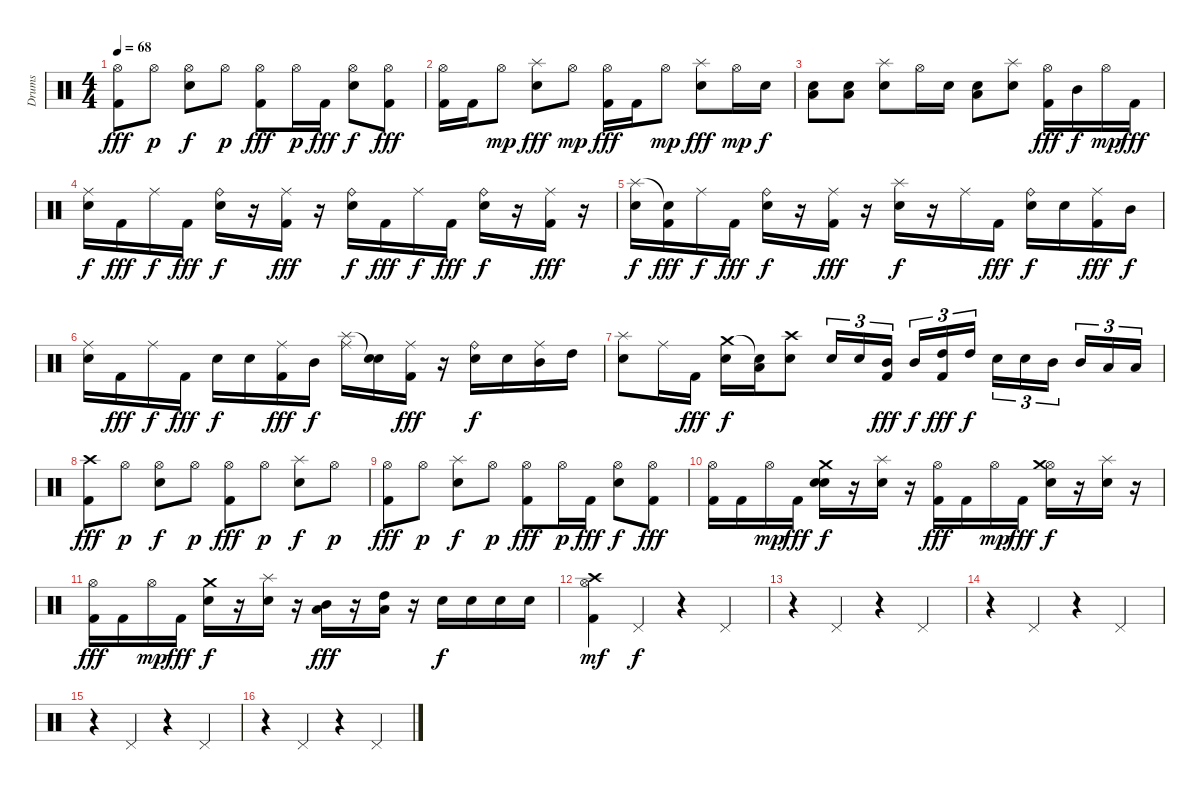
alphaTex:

\track ("Drums" "Drums") {instrument percussion}
\staff {score}
\articulation defaults
\ts (4 4)
\tempo 68
\clef neutral
\ks c
("Hi-Hat (open)" "Kick (hit) 2").8{dy fff} "Hi-Hat (open)".8{dy p} ("Hi-Hat (open)" "Snare (hit) 2").8{dy f} "Hi-Hat (open)".8{dy p} ("Hi-Hat (open)" "Kick (hit) 2").8{dy fff} "Hi-Hat (open)".16{dy p} "Kick (hit) 2".16{dy fff} ("Hi-Hat (open)" "Snare (hit) 2").8{dy f} ("Hi-Hat (open)" "Kick (hit) 2").8{dy fff} |
("Hi-Hat (open)" "Kick (hit) 2").16 "Kick (hit) 2".16 "Hi-Hat (open)".8{dy mp} ("Snare (hit) 2" "Splash (hit)").8{dy fff} "Hi-Hat (open)".8{dy mp} ("Hi-Hat (open)" "Kick (hit) 2").16{dy fff} "Kick (hit) 2".16 "Hi-Hat (open)".8{dy mp} ("Snare (hit) 2" "Splash (hit)").8{dy fff} "Hi-Hat (open)".16{dy mp} "Snare (hit) 2".16{dy f} |
("Snare (hit) 2" "Low Tom (hit)").8 ("Snare (hit) 2" "Low Tom (hit)").8 ("Snare (hit) 2" "Splash (hit)").8 "Hi-Hat (open)".16 "Snare (hit) 2".16 ("Snare (hit) 2" "Low Tom (hit)").8 ("Snare (hit) 2" "Splash (hit)").8 ("Hi-Hat (open)" "Kick (hit) 2").16{dy fff} "Mid Tom (hit)".16{dy f} "Hi-Hat (open)".16{dy mp} "Kick (hit) 2".16{dy fff} |
("Ride (middle)" "Snare (hit) 2").16{dy f} "Kick (hit) 2".16{dy fff} "Ride (middle)".16{dy f} "Kick (hit) 2".16{dy fff} ("Ride (bell)" "Snare (hit) 2").16{dy f} r.16 ("Ride (middle)" "Kick (hit) 2").16{dy fff} r.16 ("Ride (bell)" "Snare (hit) 2").16{dy f} "Kick (hit) 2".16{dy fff} "Ride (middle)".16{dy f} "Kick (hit) 2".16{dy fff} ("Ride (bell)" "Snare (hit) 2").16{dy f} r.16 ("Ride (middle)" "Kick (hit) 2").16{dy fff} r.16 |
("Snare (hit) 2" "Splash (hit)").16{dy f} ("Kick (hit) 2" "Snare (hit)"{t}).16{dy fff} "Ride (middle)".16{dy f} "Kick (hit) 2".16{dy fff} ("Ride (bell)" "Snare (hit) 2").16{dy f} r.16 ("Ride (middle)" "Kick (hit) 2").16{dy fff} r.16 ("Snare (hit) 2" "Splash (hit)").16{dy f} r.16 "Ride (middle)".16 "Kick (hit) 2".16{dy fff} ("Ride (bell)" "Snare (hit) 2").16{dy f} "Snare (hit) 2".16 ("Ride (middle)" "Kick (hit) 2").16{dy fff} "Mid Tom (hit)".16{dy f} |
("Ride (middle)" "Snare (hit) 2").16 "Kick (hit) 2".16{dy fff} "Ride (middle)".16{dy f} "Kick (hit) 2".16{dy fff} "Snare (hit) 2".16{dy f} "Snare (hit) 2".16 ("Ride (middle)" "Kick (hit) 2").16{dy fff} "Mid Tom (hit)".16{dy f} ("Ride (middle)" "Splash (hit)").16 ("Snare (hit) 2" "Snare (hit)"{t}).16 ("Ride (middle)" "Kick (hit) 2").16{dy fff} r.16 ("Ride (bell)" "Snare (hit) 2").16{dy f} "Snare (hit) 2".16 ("Ride (middle)" "Mid Tom (hit)").16 "High Tom (hit)".16 |
("Snare (hit) 2" "Splash (hit)").8 "Ride (middle)".16 "Kick (hit) 2".16{dy fff} ("Snare (hit) 2" "Crash medium (hit)").16{dy f} ("Low Tom (hit)" "Snare (hit)"{t}).16 ("Snare (hit) 2" "Crash high (hit)").8 "Snare (hit) 2".16{tu (3 2)} "Snare (hit) 2".16{tu (3 2)} ("Mid Tom (hit)" "Kick (hit) 2").16{tu (3 2) dy fff} "Mid Tom (hit)".16{tu (3 2) dy f} ("High Tom (hit)" "Kick (hit) 2").16{tu (3 2) dy fff} "High Tom (hit)".16{tu (3 2) dy f} "Snare (hit) 2".16{tu (3 2)} "Snare (hit) 2".16{tu (3 2)} "Mid Tom (hit)".16{tu (3 2)} "Mid Tom (hit)".16{tu (3 2)} "Low Tom (hit)".16{tu (3 2)} "Low Tom (hit)".16{tu (3 2)} |
("Kick (hit) 2" "Crash high (hit)").8{dy fff} "Hi-Hat (open)".8{dy p} ("Hi-Hat (open)" "Snare (hit) 2").8{dy f} "Hi-Hat (open)".8{dy p} ("Hi-Hat (open)" "Kick (hit) 2").8{dy fff} "Hi-Hat (open)".8{dy p} ("Snare (hit) 2" "Splash (hit)").8{dy f} "Hi-Hat (open)".8{dy p} |
("Hi-Hat (open)" "Kick (hit) 2").8{dy fff} "Hi-Hat (open)".8{dy p} ("Snare (hit) 2" "Splash (hit)").8{dy f} "Hi-Hat (open)".8{dy p} ("Hi-Hat (open)" "Kick (hit) 2").8{dy fff} "Hi-Hat (open)".16{dy p} "Kick (hit) 2".16{dy fff} ("Hi-Hat (open)" "Snare (hit) 2").8{dy f} ("Hi-Hat (open)" "Kick (hit) 2").8{dy fff} |
("Hi-Hat (open)" "Kick (hit) 2").16 "Kick (hit) 2".16 "Hi-Hat (open)".16{dy mp} "Kick (hit) 2".16{dy fff} ("Snare (hit)" "Snare (hit) 2" "Crash medium (hit)").16{dy f} r.16 ("Snare (hit) 2" "Splash (hit)").16 r.16 ("Hi-Hat (open)" "Kick (hit) 2").16{dy fff} "Kick (hit) 2".16 "Hi-Hat (open)".16{dy mp} "Kick (hit) 2".16{dy fff} ("Hi-Hat (open)" "Snare (hit) 2" "Crash medium (hit)").16{dy f} r.16 ("Snare (hit) 2" "Splash (hit)").16 r.16 |
("Hi-Hat (open)" "Kick (hit) 2").16{dy fff} "Kick (hit) 2".16 "Hi-Hat (open)".16{dy mp} "Kick (hit) 2".16{dy fff} ("Snare (hit) 2" "Crash medium (hit)").16{dy f} r.16 ("Snare (hit) 2" "Splash (hit)").16 r.16 ("Low Tom (hit)" "Mid Tom (hit)").16{dy fff} r.16 ("Low Tom (hit)" "High Tom (hit)").16 r.16 "Snare (hit) 2".16{dy f} "Snare (hit) 2".16 "Snare (hit) 2".16 "Snare (hit) 2".16 |
("Hi-Hat (open)" "Kick (hit) 2" "Crash high (hit)").4{dy mf} "Pedal Hi-Hat (hit)".4{dy f} r.4 "Pedal Hi-Hat (hit)".4 |
r.4 "Pedal Hi-Hat (hit)".4 r.4 "Pedal Hi-Hat (hit)".4 |
r.4 "Pedal Hi-Hat (hit)".4 r.4 "Pedal Hi-Hat (hit)".4 |
r.4 "Pedal Hi-Hat (hit)".4 r.4 "Pedal Hi-Hat (hit)".4 |
r.4 "Pedal Hi-Hat (hit)".4 r.4 "Pedal Hi-Hat (hit)".4
